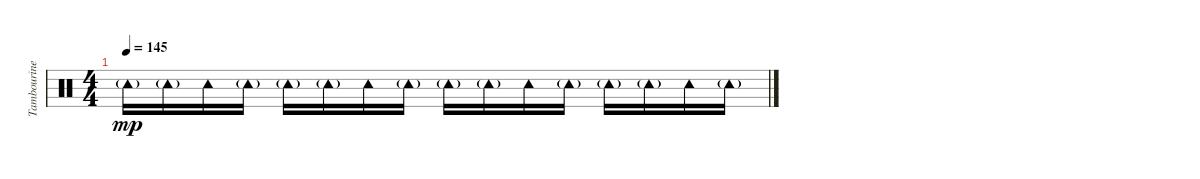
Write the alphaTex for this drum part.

\track ("Tambourine" "Tambourine") {instrument percussion}
\staff {score}
\articulation defaults
\ts (4 4)
\tempo 145
\clef neutral
\ks c "Tambourine (hit)"{g}.16{dy mp} "Tambourine (hit)"{g}.16 "Tambourine (hit)".16 "Tambourine (hit)"{g}.16 "Tambourine (hit)"{g}.16 "Tambourine (hit)"{g}.16 "Tambourine (hit)".16 "Tambourine (hit)"{g}.16 "Tambourine (hit)"{g}.16 "Tambourine (hit)"{g}.16 "Tambourine (hit)".16 "Tambourine (hit)"{g}.16 "Tambourine (hit)"{g}.16 "Tambourine (hit)"{g}.16 "Tambourine (hit)".16 "Tambourine (hit)"{g}.16
